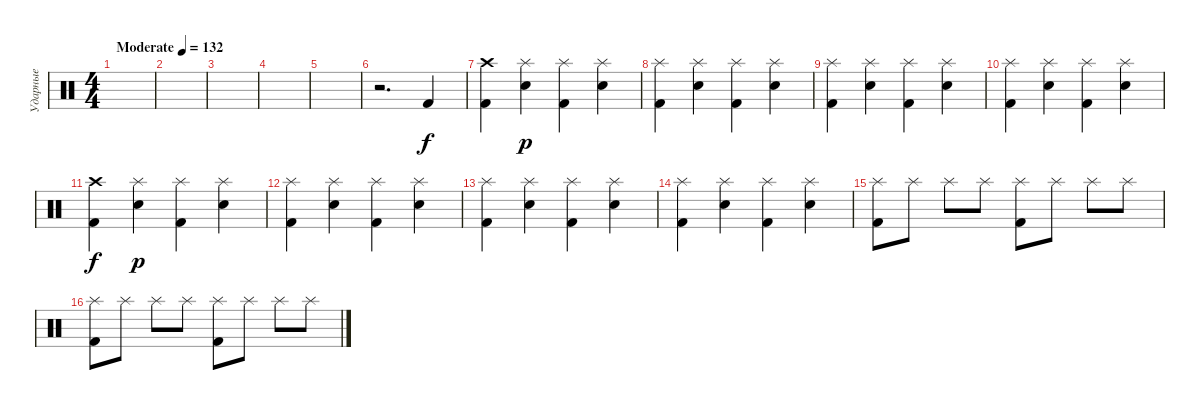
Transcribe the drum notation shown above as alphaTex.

\track ("Ударные" "Ударные") {instrument percussion}
\staff {score}
\articulation defaults
\ts (4 4)
\tempo (132 "Moderate")
\clef neutral
\ks c
|
|
|
|
|
r.2{d} "Kick (hit) 2".4 |
("Crash high (hit)" "Kick (hit) 2").4 ("Splash (hit)" "Electric Snare (hit)").4{dy p} ("Splash (hit)" "Kick (hit) 2").4 ("Splash (hit)" "Electric Snare (hit)").4 |
("Splash (hit)" "Kick (hit) 2").4 ("Splash (hit)" "Electric Snare (hit)").4 ("Splash (hit)" "Kick (hit) 2").4 ("Splash (hit)" "Electric Snare (hit)").4 |
("Splash (hit)" "Kick (hit) 2").4 ("Splash (hit)" "Electric Snare (hit)").4 ("Splash (hit)" "Kick (hit) 2").4 ("Splash (hit)" "Electric Snare (hit)").4 |
("Splash (hit)" "Kick (hit) 2").4 ("Splash (hit)" "Electric Snare (hit)").4 ("Splash (hit)" "Kick (hit) 2").4 ("Splash (hit)" "Electric Snare (hit)").4 |
("Crash high (hit)" "Kick (hit) 2").4{dy f} ("Splash (hit)" "Electric Snare (hit)").4{dy p} ("Splash (hit)" "Kick (hit) 2").4 ("Splash (hit)" "Electric Snare (hit)").4 |
("Splash (hit)" "Kick (hit) 2").4 ("Splash (hit)" "Electric Snare (hit)").4 ("Splash (hit)" "Kick (hit) 2").4 ("Splash (hit)" "Electric Snare (hit)").4 |
("Splash (hit)" "Kick (hit) 2").4 ("Splash (hit)" "Electric Snare (hit)").4 ("Splash (hit)" "Kick (hit) 2").4 ("Splash (hit)" "Electric Snare (hit)").4 |
("Splash (hit)" "Kick (hit) 2").4 ("Splash (hit)" "Electric Snare (hit)").4 ("Splash (hit)" "Kick (hit) 2").4 ("Splash (hit)" "Electric Snare (hit)").4 |
("Splash (hit)" "Kick (hit) 2").8 "Splash (hit)".8 "Splash (hit)".8 "Splash (hit)".8 ("Splash (hit)" "Kick (hit) 2").8 "Splash (hit)".8 "Splash (hit)".8 "Splash (hit)".8 |
("Splash (hit)" "Kick (hit) 2").8 "Splash (hit)".8 "Splash (hit)".8 "Splash (hit)".8 ("Splash (hit)" "Kick (hit) 2").8 "Splash (hit)".8 "Splash (hit)".8 "Splash (hit)".8
